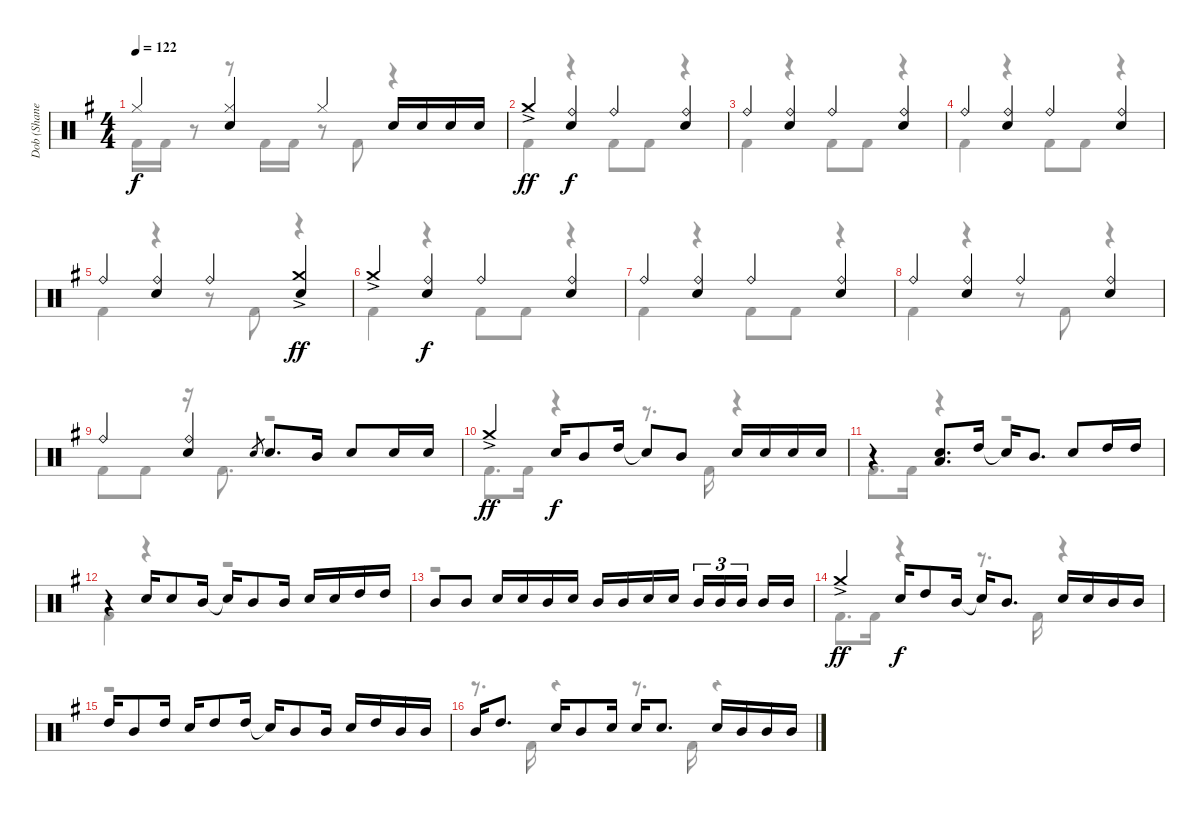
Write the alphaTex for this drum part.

\track ("Dob (Shane Gaalaas)" "Dob (Shane") {instrument percussion}
\staff {score}
\articulation defaults
\voice
\ts (4 4)
\tempo 122
\clef neutral
\ks g "Hi-Hat (closed)".4{dy f}
("Hi-Hat (closed)" "Electric Snare (hit)").4 "Hi-Hat (closed)".4 "Electric Snare (hit)".16 "Electric Snare (hit)".16 "Electric Snare (hit)".16 "Electric Snare (hit)".16 |
"Crash medium (hit)"{ac}.4{dy ff} ("Ride (bell)" "Electric Snare (hit)").4{dy f} "Ride (bell)".4 ("Ride (bell)" "Electric Snare (hit)").4 |
"Ride (bell)".4 ("Ride (bell)" "Electric Snare (hit)").4 "Ride (bell)".4 ("Ride (bell)" "Electric Snare (hit)").4 |
"Ride (bell)".4 ("Ride (bell)" "Electric Snare (hit)").4 "Ride (bell)".4 ("Ride (bell)" "Electric Snare (hit)").4 |
"Ride (bell)".4 ("Ride (bell)" "Electric Snare (hit)").4 "Ride (bell)".4 ("Crash medium (hit)"{ac} "Electric Snare (hit)").4{dy ff} |
"Crash medium (hit)"{ac}.4 ("Ride (bell)" "Electric Snare (hit)").4{dy f} "Ride (bell)".4 ("Ride (bell)" "Electric Snare (hit)").4 |
"Ride (bell)".4 ("Ride (bell)" "Electric Snare (hit)").4 "Ride (bell)".4 ("Ride (bell)" "Electric Snare (hit)").4 |
"Ride (bell)".4 ("Ride (bell)" "Electric Snare (hit)").4 "Ride (bell)".4 ("Ride (bell)" "Electric Snare (hit)").4 |
"Ride (bell)".4 ("Ride (bell)" "Electric Snare (hit)").4 "Electric Snare (hit)"{h}.8{gr} "Electric Snare (hit)".8{d} "Mid Tom (hit)".16 "Electric Snare (hit)".8 "Electric Snare (hit)".16 "Electric Snare (hit)".16 |
"Crash medium (hit)"{ac}.4{dy ff} "Electric Snare (hit)".16{dy f} "Mid Tom (hit)".8 "High Tom (hit)".16 "Snare (hit)"{t}.8 "Mid Tom (hit)".8 "Electric Snare (hit)".16 "Electric Snare (hit)".16 "Electric Snare (hit)".16 "Snare (hit) 2".16 |
r.4 ("Electric Snare (hit)" "Low Tom (hit)").8{d} "High Tom (hit)".16 "Snare (hit)"{t}.16 "Mid Tom (hit)".8{d} "Electric Snare (hit)".8 "High Tom (hit)".16 "High Tom (hit)".16 |
r.4 "Electric Snare (hit)".16 "Electric Snare (hit)".8 "Mid Tom (hit)".16 "Snare (hit)"{t}.16 "Mid Tom (hit)".8 "Mid Tom (hit)".16 "Electric Snare (hit)".16 "Electric Snare (hit)".16 "High Tom (hit)".16 "High Tom (hit)".16 |
"Mid Tom (hit)".8 "Mid Tom (hit)".8 "Electric Snare (hit)".16 "Electric Snare (hit)".16 "Mid Tom (hit)".16 "Electric Snare (hit)".16 "Mid Tom (hit)".16 "Mid Tom (hit)".16 "Electric Snare (hit)".16 "Electric Snare (hit)".16 "Mid Tom (hit)".16{tu (3 2)} "Mid Tom (hit)".16{tu (3 2)} "Mid Tom (hit)".16{tu (3 2) beam splitsecondary} "Mid Tom (hit)".16 "Mid Tom (hit)".16 |
"Crash medium (hit)"{ac}.4{dy ff} "Electric Snare (hit)".16{dy f} "High Tom (hit)".8 "Mid Tom (hit)".16 "Snare (hit)"{t}.16 "Mid Tom (hit)".8{d} "Electric Snare (hit)".16 "Electric Snare (hit)".16 "Mid Tom (hit)".16 "Mid Tom (hit)".16 |
"High Tom (hit)".16 "Mid Tom (hit)".8 "High Tom (hit)".16 "Electric Snare (hit)".16 "High Tom (hit)".8 "High Tom (hit)".16 "Snare (hit)"{t}.16 "Mid Tom (hit)".8 "Mid Tom (hit)".16 "Electric Snare (hit)".16 "High Tom (hit)".16 "Mid Tom (hit)".16 "Mid Tom (hit)".16 |
"Mid Tom (hit)".16 "High Tom (hit)".8{d} "Electric Snare (hit)".16 "Mid Tom (hit)".8 "Electric Snare (hit)".16 "Electric Snare (hit)".16 "Electric Snare (hit)".8{d} "Electric Snare (hit)".16 "Mid Tom (hit)".16 "Mid Tom (hit)".16 "Mid Tom (hit)".16
\voice
\clef neutral
\ottava regular
\simile none
\ks g "Kick (hit) 2".16{dy f} "Kick (hit) 2".16
r.8 r.8 "Kick (hit) 2".16 "Kick (hit) 2".16 r.8 "Kick (hit) 2".8 r.4 |
"Kick (hit) 2".4 r.4 "Kick (hit) 2".8 "Kick (hit) 2".8 r.4 |
"Kick (hit) 2".4 r.4 "Kick (hit) 2".8 "Kick (hit) 2".8 r.4 |
"Kick (hit) 2".4 r.4 "Kick (hit) 2".8 "Kick (hit) 2".8 r.4 |
"Kick (hit) 2".4 r.4 r.8 "Kick (hit) 2".8 r.4 |
"Kick (hit) 2".4 r.4 "Kick (hit) 2".8 "Kick (hit) 2".8 r.4 |
"Kick (hit) 2".4 r.4 "Kick (hit) 2".8 "Kick (hit) 2".8 r.4 |
"Kick (hit) 2".4 r.4 r.8 "Kick (hit) 2".8 r.4 |
"Kick (hit) 2".8 "Kick (hit) 2".8 r.16 "Kick (hit) 2".8{d} r.2 |
"Kick (hit) 2".8{d} "Kick (hit) 2".16 r.4 r.8{d} "Kick (hit) 2".16 r.4 |
"Kick (hit) 2".8{d} "Kick (hit) 2".16 r.4 r.2 |
"Kick (hit) 2".4 r.4 r.2 |
r.1 |
"Kick (hit) 2".8{d} "Kick (hit) 2".16 r.4 r.8{d} "Kick (hit) 2".16 r.4 |
r.1 |
r.8{d} "Kick (hit) 2".16 r.4 r.8{d} "Kick (hit) 2".16 r.4
